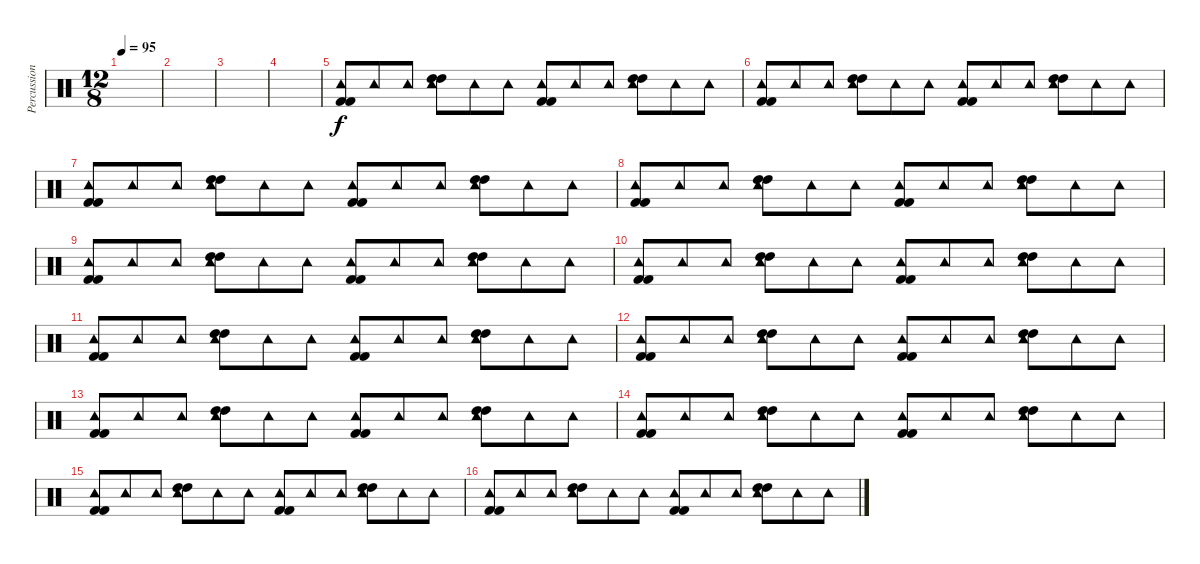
\track ("Percussion" "Percussion") {instrument percussion}
\staff {score}
\articulation defaults
\ts (12 8)
\tempo 95
\clef neutral
\ks c
|
|
|
|
("Kick (hit) 2" "Kick (hit) 2" "Tambourine (hit)").8 "Tambourine (hit)".8 "Tambourine (hit)".8 ("High Tom (hit)" "High Tom (hit)" "Tambourine (hit)").8 "Tambourine (hit)".8 "Tambourine (hit)".8 ("Kick (hit) 2" "Kick (hit) 2" "Tambourine (hit)").8 "Tambourine (hit)".8 "Tambourine (hit)".8 ("High Tom (hit)" "High Tom (hit)" "Tambourine (hit)").8 "Tambourine (hit)".8 "Tambourine (hit)".8 |
("Kick (hit) 2" "Kick (hit) 2" "Tambourine (hit)").8 "Tambourine (hit)".8 "Tambourine (hit)".8 ("High Tom (hit)" "High Tom (hit)" "Tambourine (hit)").8 "Tambourine (hit)".8 "Tambourine (hit)".8 ("Kick (hit) 2" "Kick (hit) 2" "Tambourine (hit)").8 "Tambourine (hit)".8 "Tambourine (hit)".8 ("High Tom (hit)" "High Tom (hit)" "Tambourine (hit)").8 "Tambourine (hit)".8 "Tambourine (hit)".8 |
("Kick (hit) 2" "Kick (hit) 2" "Tambourine (hit)").8 "Tambourine (hit)".8 "Tambourine (hit)".8 ("High Tom (hit)" "High Tom (hit)" "Tambourine (hit)").8 "Tambourine (hit)".8 "Tambourine (hit)".8 ("Kick (hit) 2" "Kick (hit) 2" "Tambourine (hit)").8 "Tambourine (hit)".8 "Tambourine (hit)".8 ("High Tom (hit)" "High Tom (hit)" "Tambourine (hit)").8 "Tambourine (hit)".8 "Tambourine (hit)".8 |
("Kick (hit) 2" "Kick (hit) 2" "Tambourine (hit)").8 "Tambourine (hit)".8 "Tambourine (hit)".8 ("High Tom (hit)" "High Tom (hit)" "Tambourine (hit)").8 "Tambourine (hit)".8 "Tambourine (hit)".8 ("Kick (hit) 2" "Kick (hit) 2" "Tambourine (hit)").8 "Tambourine (hit)".8 "Tambourine (hit)".8 ("High Tom (hit)" "High Tom (hit)" "Tambourine (hit)").8 "Tambourine (hit)".8 "Tambourine (hit)".8 |
("Kick (hit) 2" "Kick (hit) 2" "Tambourine (hit)").8 "Tambourine (hit)".8 "Tambourine (hit)".8 ("High Tom (hit)" "High Tom (hit)" "Tambourine (hit)").8 "Tambourine (hit)".8 "Tambourine (hit)".8 ("Kick (hit) 2" "Kick (hit) 2" "Tambourine (hit)").8 "Tambourine (hit)".8 "Tambourine (hit)".8 ("High Tom (hit)" "High Tom (hit)" "Tambourine (hit)").8 "Tambourine (hit)".8 "Tambourine (hit)".8 |
("Kick (hit) 2" "Kick (hit) 2" "Tambourine (hit)").8 "Tambourine (hit)".8 "Tambourine (hit)".8 ("High Tom (hit)" "High Tom (hit)" "Tambourine (hit)").8 "Tambourine (hit)".8 "Tambourine (hit)".8 ("Kick (hit) 2" "Kick (hit) 2" "Tambourine (hit)").8 "Tambourine (hit)".8 "Tambourine (hit)".8 ("High Tom (hit)" "High Tom (hit)" "Tambourine (hit)").8 "Tambourine (hit)".8 "Tambourine (hit)".8 |
("Kick (hit) 2" "Kick (hit) 2" "Tambourine (hit)").8 "Tambourine (hit)".8 "Tambourine (hit)".8 ("High Tom (hit)" "High Tom (hit)" "Tambourine (hit)").8 "Tambourine (hit)".8 "Tambourine (hit)".8 ("Kick (hit) 2" "Kick (hit) 2" "Tambourine (hit)").8 "Tambourine (hit)".8 "Tambourine (hit)".8 ("High Tom (hit)" "High Tom (hit)" "Tambourine (hit)").8 "Tambourine (hit)".8 "Tambourine (hit)".8 |
("Kick (hit) 2" "Kick (hit) 2" "Tambourine (hit)").8 "Tambourine (hit)".8 "Tambourine (hit)".8 ("High Tom (hit)" "High Tom (hit)" "Tambourine (hit)").8 "Tambourine (hit)".8 "Tambourine (hit)".8 ("Kick (hit) 2" "Kick (hit) 2" "Tambourine (hit)").8 "Tambourine (hit)".8 "Tambourine (hit)".8 ("High Tom (hit)" "High Tom (hit)" "Tambourine (hit)").8 "Tambourine (hit)".8 "Tambourine (hit)".8 |
("Kick (hit) 2" "Kick (hit) 2" "Tambourine (hit)").8 "Tambourine (hit)".8 "Tambourine (hit)".8 ("High Tom (hit)" "High Tom (hit)" "Tambourine (hit)").8 "Tambourine (hit)".8 "Tambourine (hit)".8 ("Kick (hit) 2" "Kick (hit) 2" "Tambourine (hit)").8 "Tambourine (hit)".8 "Tambourine (hit)".8 ("High Tom (hit)" "High Tom (hit)" "Tambourine (hit)").8 "Tambourine (hit)".8 "Tambourine (hit)".8 |
("Kick (hit) 2" "Kick (hit) 2" "Tambourine (hit)").8 "Tambourine (hit)".8 "Tambourine (hit)".8 ("High Tom (hit)" "High Tom (hit)" "Tambourine (hit)").8 "Tambourine (hit)".8 "Tambourine (hit)".8 ("Kick (hit) 2" "Kick (hit) 2" "Tambourine (hit)").8 "Tambourine (hit)".8 "Tambourine (hit)".8 ("High Tom (hit)" "High Tom (hit)" "Tambourine (hit)").8 "Tambourine (hit)".8 "Tambourine (hit)".8 |
("Kick (hit) 2" "Kick (hit) 2" "Tambourine (hit)").8 "Tambourine (hit)".8 "Tambourine (hit)".8 ("High Tom (hit)" "High Tom (hit)" "Tambourine (hit)").8 "Tambourine (hit)".8 "Tambourine (hit)".8 ("Kick (hit) 2" "Kick (hit) 2" "Tambourine (hit)").8 "Tambourine (hit)".8 "Tambourine (hit)".8 ("High Tom (hit)" "High Tom (hit)" "Tambourine (hit)").8 "Tambourine (hit)".8 "Tambourine (hit)".8 |
("Kick (hit) 2" "Kick (hit) 2" "Tambourine (hit)").8 "Tambourine (hit)".8 "Tambourine (hit)".8 ("High Tom (hit)" "High Tom (hit)" "Tambourine (hit)").8 "Tambourine (hit)".8 "Tambourine (hit)".8 ("Kick (hit) 2" "Kick (hit) 2" "Tambourine (hit)").8 "Tambourine (hit)".8 "Tambourine (hit)".8 ("High Tom (hit)" "High Tom (hit)" "Tambourine (hit)").8 "Tambourine (hit)".8 "Tambourine (hit)".8
